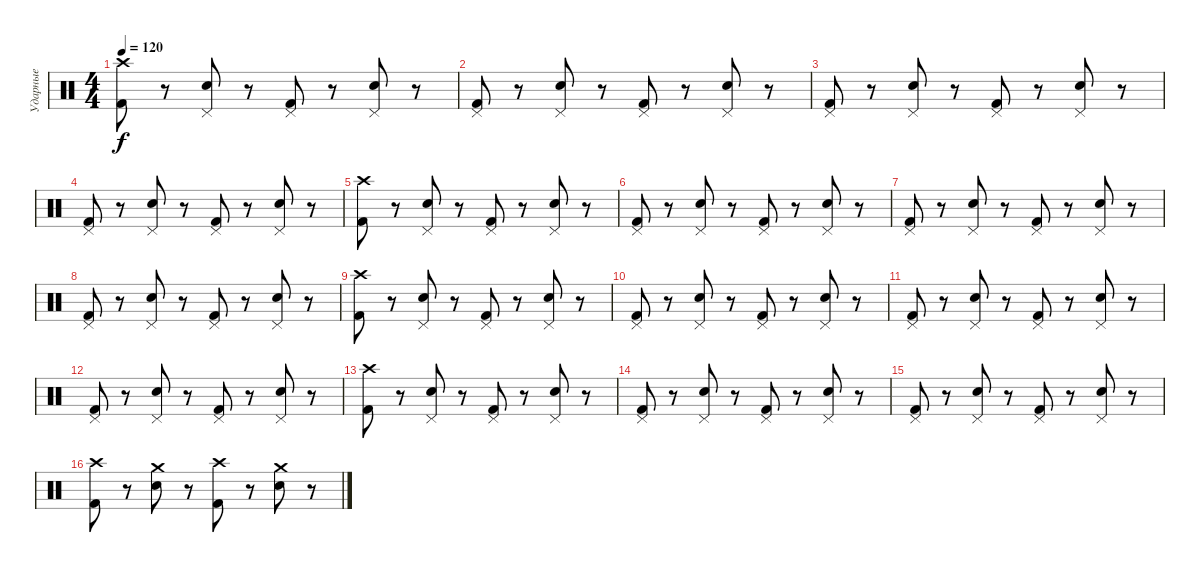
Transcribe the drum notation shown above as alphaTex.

\track ("Ударные" "Ударные") {instrument percussion}
\staff {score}
\articulation defaults
\ts (4 4)
\tempo 120
\clef neutral
\ks c
("Crash high (hit)" "Kick (hit) 2").8{dy f} r.8 ("Pedal Hi-Hat (hit)" "Electric Snare (hit)").8 r.8 ("Pedal Hi-Hat (hit)" "Kick (hit) 2").8 r.8 ("Pedal Hi-Hat (hit)" "Electric Snare (hit)").8 r.8 |
("Pedal Hi-Hat (hit)" "Kick (hit) 2").8 r.8 ("Pedal Hi-Hat (hit)" "Electric Snare (hit)").8 r.8 ("Pedal Hi-Hat (hit)" "Kick (hit) 2").8 r.8 ("Pedal Hi-Hat (hit)" "Electric Snare (hit)").8 r.8 |
("Pedal Hi-Hat (hit)" "Kick (hit) 2").8 r.8 ("Pedal Hi-Hat (hit)" "Electric Snare (hit)").8 r.8 ("Pedal Hi-Hat (hit)" "Kick (hit) 2").8 r.8 ("Pedal Hi-Hat (hit)" "Electric Snare (hit)").8 r.8 |
("Pedal Hi-Hat (hit)" "Kick (hit) 2").8 r.8 ("Pedal Hi-Hat (hit)" "Electric Snare (hit)").8 r.8 ("Pedal Hi-Hat (hit)" "Kick (hit) 2").8 r.8 ("Pedal Hi-Hat (hit)" "Electric Snare (hit)").8 r.8 |
("Crash high (hit)" "Kick (hit) 2").8 r.8 ("Pedal Hi-Hat (hit)" "Electric Snare (hit)").8 r.8 ("Pedal Hi-Hat (hit)" "Kick (hit) 2").8 r.8 ("Pedal Hi-Hat (hit)" "Electric Snare (hit)").8 r.8 |
("Pedal Hi-Hat (hit)" "Kick (hit) 2").8 r.8 ("Pedal Hi-Hat (hit)" "Electric Snare (hit)").8 r.8 ("Pedal Hi-Hat (hit)" "Kick (hit) 2").8 r.8 ("Pedal Hi-Hat (hit)" "Electric Snare (hit)").8 r.8 |
("Pedal Hi-Hat (hit)" "Kick (hit) 2").8 r.8 ("Pedal Hi-Hat (hit)" "Electric Snare (hit)").8 r.8 ("Pedal Hi-Hat (hit)" "Kick (hit) 2").8 r.8 ("Pedal Hi-Hat (hit)" "Electric Snare (hit)").8 r.8 |
("Pedal Hi-Hat (hit)" "Kick (hit) 2").8 r.8 ("Pedal Hi-Hat (hit)" "Electric Snare (hit)").8 r.8 ("Pedal Hi-Hat (hit)" "Kick (hit) 2").8 r.8 ("Pedal Hi-Hat (hit)" "Electric Snare (hit)").8 r.8 |
("Crash high (hit)" "Kick (hit) 2").8 r.8 ("Pedal Hi-Hat (hit)" "Electric Snare (hit)").8 r.8 ("Pedal Hi-Hat (hit)" "Kick (hit) 2").8 r.8 ("Pedal Hi-Hat (hit)" "Electric Snare (hit)").8 r.8 |
("Pedal Hi-Hat (hit)" "Kick (hit) 2").8 r.8 ("Pedal Hi-Hat (hit)" "Electric Snare (hit)").8 r.8 ("Pedal Hi-Hat (hit)" "Kick (hit) 2").8 r.8 ("Pedal Hi-Hat (hit)" "Electric Snare (hit)").8 r.8 |
("Pedal Hi-Hat (hit)" "Kick (hit) 2").8 r.8 ("Pedal Hi-Hat (hit)" "Electric Snare (hit)").8 r.8 ("Pedal Hi-Hat (hit)" "Kick (hit) 2").8 r.8 ("Pedal Hi-Hat (hit)" "Electric Snare (hit)").8 r.8 |
("Pedal Hi-Hat (hit)" "Kick (hit) 2").8 r.8 ("Pedal Hi-Hat (hit)" "Electric Snare (hit)").8 r.8 ("Pedal Hi-Hat (hit)" "Kick (hit) 2").8 r.8 ("Pedal Hi-Hat (hit)" "Electric Snare (hit)").8 r.8 |
("Crash high (hit)" "Kick (hit) 2").8 r.8 ("Pedal Hi-Hat (hit)" "Electric Snare (hit)").8 r.8 ("Pedal Hi-Hat (hit)" "Kick (hit) 2").8 r.8 ("Pedal Hi-Hat (hit)" "Electric Snare (hit)").8 r.8 |
("Pedal Hi-Hat (hit)" "Kick (hit) 2").8 r.8 ("Pedal Hi-Hat (hit)" "Electric Snare (hit)").8 r.8 ("Pedal Hi-Hat (hit)" "Kick (hit) 2").8 r.8 ("Pedal Hi-Hat (hit)" "Electric Snare (hit)").8 r.8 |
("Pedal Hi-Hat (hit)" "Kick (hit) 2").8 r.8 ("Pedal Hi-Hat (hit)" "Electric Snare (hit)").8 r.8 ("Pedal Hi-Hat (hit)" "Kick (hit) 2").8 r.8 ("Pedal Hi-Hat (hit)" "Electric Snare (hit)").8 r.8 |
("Crash high (hit)" "Kick (hit) 2").8 r.8 ("Crash medium (hit)" "Electric Snare (hit)").8 r.8 ("Crash high (hit)" "Kick (hit) 2").8 r.8 ("Crash medium (hit)" "Electric Snare (hit)").8 r.8
